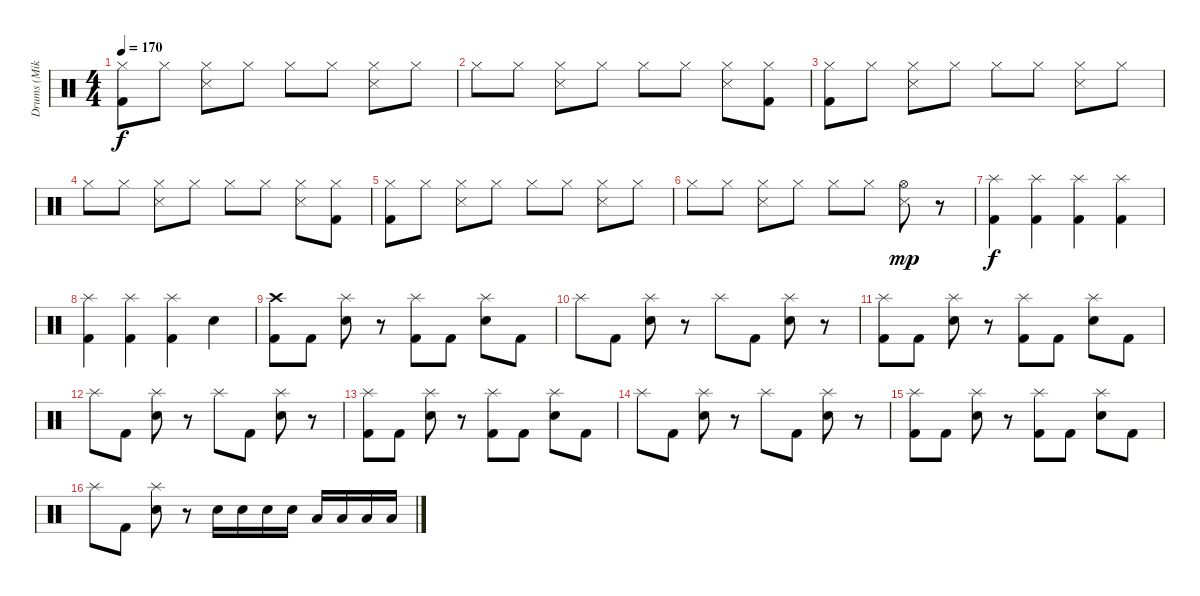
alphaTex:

\track ("Drums (Mike C)" "Drums (Mik") {instrument percussion}
\staff {score}
\articulation defaults
\ts (4 4)
\tempo 170
\clef neutral
\ks c
("Hi-Hat (closed)" "Kick (hit) 2").8{dy f} "Hi-Hat (closed)".8 ("Hi-Hat (closed)" "Snare (side stick) 3").8 "Hi-Hat (closed)".8 "Hi-Hat (closed)".8 "Hi-Hat (closed)".8 ("Hi-Hat (closed)" "Snare (side stick) 3").8 "Hi-Hat (closed)".8 |
"Hi-Hat (closed)".8 "Hi-Hat (closed)".8 ("Hi-Hat (closed)" "Snare (side stick) 3").8 "Hi-Hat (closed)".8 "Hi-Hat (closed)".8 "Hi-Hat (closed)".8 ("Hi-Hat (closed)" "Snare (side stick) 3").8 ("Hi-Hat (closed)" "Kick (hit) 2").8 |
("Hi-Hat (closed)" "Kick (hit) 2").8 "Hi-Hat (closed)".8 ("Hi-Hat (closed)" "Snare (side stick) 3").8 "Hi-Hat (closed)".8 "Hi-Hat (closed)".8 "Hi-Hat (closed)".8 ("Hi-Hat (closed)" "Snare (side stick) 3").8 "Hi-Hat (closed)".8 |
"Hi-Hat (closed)".8 "Hi-Hat (closed)".8 ("Hi-Hat (closed)" "Snare (side stick) 3").8 "Hi-Hat (closed)".8 "Hi-Hat (closed)".8 "Hi-Hat (closed)".8 ("Hi-Hat (closed)" "Snare (side stick) 3").8 ("Hi-Hat (closed)" "Kick (hit) 2").8 |
("Hi-Hat (closed)" "Kick (hit) 2").8 "Hi-Hat (closed)".8 ("Hi-Hat (closed)" "Snare (side stick) 3").8 "Hi-Hat (closed)".8 "Hi-Hat (closed)".8 "Hi-Hat (closed)".8 ("Hi-Hat (closed)" "Snare (side stick) 3").8 "Hi-Hat (closed)".8 |
"Hi-Hat (closed)".8 "Hi-Hat (closed)".8 ("Hi-Hat (closed)" "Snare (side stick) 3").8 "Hi-Hat (closed)".8 "Hi-Hat (closed)".8 "Hi-Hat (closed)".8 ("Hi-Hat (open)" "Snare (side stick) 3").8{dy mp} r.8 |
("Splash (hit)" "Kick (hit) 2").4{dy f} ("Splash (hit)" "Kick (hit) 2").4 ("Splash (hit)" "Kick (hit) 2").4 ("Splash (hit)" "Kick (hit) 2").4 |
("Splash (hit)" "Kick (hit) 2").4 ("Splash (hit)" "Kick (hit) 2").4 ("Splash (hit)" "Kick (hit) 2").4 "Snare (hit) 2".4 |
("Crash high (hit)" "Kick (hit) 2").8 "Kick (hit) 2".8 ("Splash (hit)" "Snare (hit) 2").8 r.8 ("Splash (hit)" "Kick (hit) 2").8 "Kick (hit) 2".8 ("Splash (hit)" "Snare (hit) 2").8 "Kick (hit) 2".8 |
"Splash (hit)".8 "Kick (hit) 2".8 ("Splash (hit)" "Snare (hit) 2").8 r.8 "Splash (hit)".8 "Kick (hit) 2".8 ("Splash (hit)" "Snare (hit) 2").8 r.8 |
("Splash (hit)" "Kick (hit) 2").8 "Kick (hit) 2".8 ("Splash (hit)" "Snare (hit) 2").8 r.8 ("Splash (hit)" "Kick (hit) 2").8 "Kick (hit) 2".8 ("Splash (hit)" "Snare (hit) 2").8 "Kick (hit) 2".8 |
"Splash (hit)".8 "Kick (hit) 2".8 ("Splash (hit)" "Snare (hit) 2").8 r.8 "Splash (hit)".8 "Kick (hit) 2".8 ("Splash (hit)" "Snare (hit) 2").8 r.8 |
("Splash (hit)" "Kick (hit) 2").8 "Kick (hit) 2".8 ("Splash (hit)" "Snare (hit) 2").8 r.8 ("Splash (hit)" "Kick (hit) 2").8 "Kick (hit) 2".8 ("Splash (hit)" "Snare (hit) 2").8 "Kick (hit) 2".8 |
"Splash (hit)".8 "Kick (hit) 2".8 ("Splash (hit)" "Snare (hit) 2").8 r.8 "Splash (hit)".8 "Kick (hit) 2".8 ("Splash (hit)" "Snare (hit) 2").8 r.8 |
("Splash (hit)" "Kick (hit) 2").8 "Kick (hit) 2".8 ("Splash (hit)" "Snare (hit) 2").8 r.8 ("Splash (hit)" "Kick (hit) 2").8 "Kick (hit) 2".8 ("Splash (hit)" "Snare (hit) 2").8 "Kick (hit) 2".8 |
"Splash (hit)".8 "Kick (hit) 2".8 ("Splash (hit)" "Snare (hit) 2").8 r.8 "Snare (hit) 2".16 "Snare (hit) 2".16 "Snare (hit) 2".16 "Snare (hit) 2".16 "Low Tom (hit)".16 "Low Tom (hit)".16 "Low Tom (hit)".16 "Low Tom (hit)".16
